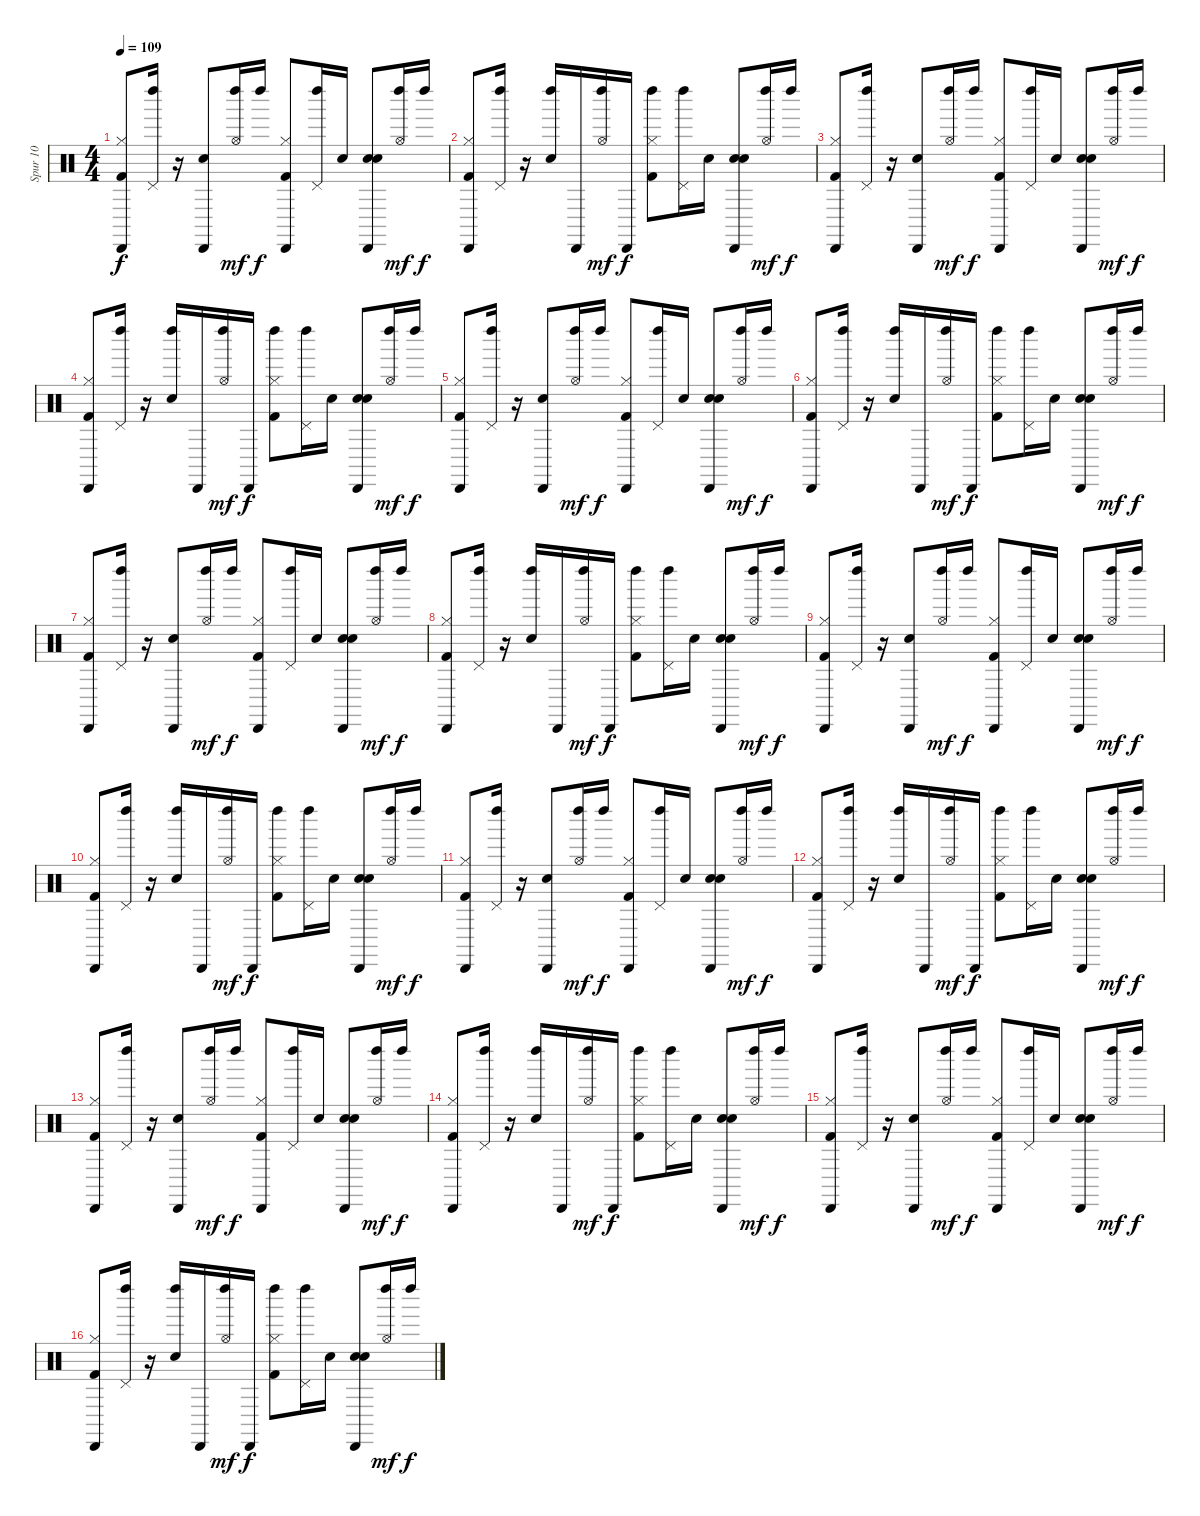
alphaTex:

\track ("Spur 10" "Spur 10") {instrument percussion}
\staff {score}
\articulation defaults
\ts (4 4)
\tempo 109
\clef neutral
\ks c
("Kick (hit) 2" "Hi-Hat (closed)" "Cabasa (hit)").8{dy f} ("Left Maraca (hit)" "Pedal Hi-Hat (hit)").16 r.16 ("Snare (hit) 2" "Cabasa (hit)").8 ("Left Maraca (hit)" "Hi-Hat (open)").16{dy mf} "Left Maraca (hit)".16{dy f} ("Kick (hit) 2" "Cabasa (hit)" "Hi-Hat (closed)").8 ("Pedal Hi-Hat (hit)" "Left Maraca (hit)").16 "Electric Snare (hit)".16 ("Electric Snare (hit)" "Snare (hit) 2" "Cabasa (hit)").8 ("Left Maraca (hit)" "Hi-Hat (open)").16{dy mf} "Left Maraca (hit)".16{dy f} |
("Kick (hit) 2" "Hi-Hat (closed)" "Cabasa (hit)").8 ("Pedal Hi-Hat (hit)" "Left Maraca (hit)").16 r.16 ("Snare (hit) 2" "Left Maraca (hit)").16 "Cabasa (hit)".16 ("Hi-Hat (open)" "Left Maraca (hit)").16{dy mf} "Cabasa (hit)".16{dy f} ("Kick (hit) 2" "Left Maraca (hit)" "Hi-Hat (closed)").8 ("Left Maraca (hit)" "Pedal Hi-Hat (hit)").16 "Electric Snare (hit)".16 ("Electric Snare (hit)" "Snare (hit) 2" "Cabasa (hit)").8 ("Left Maraca (hit)" "Hi-Hat (open)").16{dy mf} "Left Maraca (hit)".16{dy f} |
("Kick (hit) 2" "Hi-Hat (closed)" "Cabasa (hit)").8 ("Left Maraca (hit)" "Pedal Hi-Hat (hit)").16 r.16 ("Snare (hit) 2" "Cabasa (hit)").8 ("Left Maraca (hit)" "Hi-Hat (open)").16{dy mf} "Left Maraca (hit)".16{dy f} ("Kick (hit) 2" "Cabasa (hit)" "Hi-Hat (closed)").8 ("Pedal Hi-Hat (hit)" "Left Maraca (hit)").16 "Electric Snare (hit)".16 ("Snare (hit) 2" "Electric Snare (hit)" "Cabasa (hit)").8 ("Left Maraca (hit)" "Hi-Hat (open)").16{dy mf} "Left Maraca (hit)".16{dy f} |
("Kick (hit) 2" "Hi-Hat (closed)" "Cabasa (hit)").8 ("Pedal Hi-Hat (hit)" "Left Maraca (hit)").16 r.16 ("Snare (hit) 2" "Left Maraca (hit)").16 "Cabasa (hit)".16 ("Hi-Hat (open)" "Left Maraca (hit)").16{dy mf} "Cabasa (hit)".16{dy f} ("Kick (hit) 2" "Left Maraca (hit)" "Hi-Hat (closed)").8 ("Left Maraca (hit)" "Pedal Hi-Hat (hit)").16 "Electric Snare (hit)".16 ("Electric Snare (hit)" "Snare (hit) 2" "Cabasa (hit)").8 ("Left Maraca (hit)" "Hi-Hat (open)").16{dy mf} "Left Maraca (hit)".16{dy f} |
("Kick (hit) 2" "Hi-Hat (closed)" "Cabasa (hit)").8 ("Left Maraca (hit)" "Pedal Hi-Hat (hit)").16 r.16 ("Snare (hit) 2" "Cabasa (hit)").8 ("Left Maraca (hit)" "Hi-Hat (open)").16{dy mf} "Left Maraca (hit)".16{dy f} ("Kick (hit) 2" "Cabasa (hit)" "Hi-Hat (closed)").8 ("Pedal Hi-Hat (hit)" "Left Maraca (hit)").16 "Electric Snare (hit)".16 ("Electric Snare (hit)" "Snare (hit) 2" "Cabasa (hit)").8 ("Left Maraca (hit)" "Hi-Hat (open)").16{dy mf} "Left Maraca (hit)".16{dy f} |
("Kick (hit) 2" "Hi-Hat (closed)" "Cabasa (hit)").8 ("Pedal Hi-Hat (hit)" "Left Maraca (hit)").16 r.16 ("Snare (hit) 2" "Left Maraca (hit)").16 "Cabasa (hit)".16 ("Hi-Hat (open)" "Left Maraca (hit)").16{dy mf} "Cabasa (hit)".16{dy f} ("Kick (hit) 2" "Left Maraca (hit)" "Hi-Hat (closed)").8 ("Left Maraca (hit)" "Pedal Hi-Hat (hit)").16 "Electric Snare (hit)".16 ("Snare (hit) 2" "Electric Snare (hit)" "Cabasa (hit)").8 ("Left Maraca (hit)" "Hi-Hat (open)").16{dy mf} "Left Maraca (hit)".16{dy f} |
("Kick (hit) 2" "Hi-Hat (closed)" "Cabasa (hit)").8 ("Left Maraca (hit)" "Pedal Hi-Hat (hit)").16 r.16 ("Snare (hit) 2" "Cabasa (hit)").8 ("Left Maraca (hit)" "Hi-Hat (open)").16{dy mf} "Left Maraca (hit)".16{dy f} ("Kick (hit) 2" "Cabasa (hit)" "Hi-Hat (closed)").8 ("Pedal Hi-Hat (hit)" "Left Maraca (hit)").16 "Electric Snare (hit)".16 ("Snare (hit) 2" "Electric Snare (hit)" "Cabasa (hit)").8 ("Left Maraca (hit)" "Hi-Hat (open)").16{dy mf} "Left Maraca (hit)".16{dy f} |
("Kick (hit) 2" "Hi-Hat (closed)" "Cabasa (hit)").8 ("Pedal Hi-Hat (hit)" "Left Maraca (hit)").16 r.16 ("Snare (hit) 2" "Left Maraca (hit)").16 "Cabasa (hit)".16 ("Hi-Hat (open)" "Left Maraca (hit)").16{dy mf} "Cabasa (hit)".16{dy f} ("Kick (hit) 2" "Left Maraca (hit)" "Hi-Hat (closed)").8 ("Left Maraca (hit)" "Pedal Hi-Hat (hit)").16 "Electric Snare (hit)".16 ("Electric Snare (hit)" "Snare (hit) 2" "Cabasa (hit)").8 ("Left Maraca (hit)" "Hi-Hat (open)").16{dy mf} "Left Maraca (hit)".16{dy f} |
("Kick (hit) 2" "Hi-Hat (closed)" "Cabasa (hit)").8 ("Left Maraca (hit)" "Pedal Hi-Hat (hit)").16 r.16 ("Snare (hit) 2" "Cabasa (hit)").8 ("Left Maraca (hit)" "Hi-Hat (open)").16{dy mf} "Left Maraca (hit)".16{dy f} ("Kick (hit) 2" "Cabasa (hit)" "Hi-Hat (closed)").8 ("Pedal Hi-Hat (hit)" "Left Maraca (hit)").16 "Electric Snare (hit)".16 ("Electric Snare (hit)" "Snare (hit) 2" "Cabasa (hit)").8 ("Left Maraca (hit)" "Hi-Hat (open)").16{dy mf} "Left Maraca (hit)".16{dy f} |
("Kick (hit) 2" "Hi-Hat (closed)" "Cabasa (hit)").8 ("Pedal Hi-Hat (hit)" "Left Maraca (hit)").16 r.16 ("Snare (hit) 2" "Left Maraca (hit)").16 "Cabasa (hit)".16 ("Hi-Hat (open)" "Left Maraca (hit)").16{dy mf} "Cabasa (hit)".16{dy f} ("Kick (hit) 2" "Left Maraca (hit)" "Hi-Hat (closed)").8 ("Left Maraca (hit)" "Pedal Hi-Hat (hit)").16 "Electric Snare (hit)".16 ("Electric Snare (hit)" "Snare (hit) 2" "Cabasa (hit)").8 ("Left Maraca (hit)" "Hi-Hat (open)").16{dy mf} "Left Maraca (hit)".16{dy f} |
("Kick (hit) 2" "Hi-Hat (closed)" "Cabasa (hit)").8 ("Left Maraca (hit)" "Pedal Hi-Hat (hit)").16 r.16 ("Snare (hit) 2" "Cabasa (hit)").8 ("Left Maraca (hit)" "Hi-Hat (open)").16{dy mf} "Left Maraca (hit)".16{dy f} ("Kick (hit) 2" "Cabasa (hit)" "Hi-Hat (closed)").8 ("Pedal Hi-Hat (hit)" "Left Maraca (hit)").16 "Electric Snare (hit)".16 ("Electric Snare (hit)" "Snare (hit) 2" "Cabasa (hit)").8 ("Left Maraca (hit)" "Hi-Hat (open)").16{dy mf} "Left Maraca (hit)".16{dy f} |
("Kick (hit) 2" "Hi-Hat (closed)" "Cabasa (hit)").8 ("Pedal Hi-Hat (hit)" "Left Maraca (hit)").16 r.16 ("Snare (hit) 2" "Left Maraca (hit)").16 "Cabasa (hit)".16 ("Hi-Hat (open)" "Left Maraca (hit)").16{dy mf} "Cabasa (hit)".16{dy f} ("Kick (hit) 2" "Left Maraca (hit)" "Hi-Hat (closed)").8 ("Left Maraca (hit)" "Pedal Hi-Hat (hit)").16 "Electric Snare (hit)".16 ("Electric Snare (hit)" "Snare (hit) 2" "Cabasa (hit)").8 ("Left Maraca (hit)" "Hi-Hat (open)").16{dy mf} "Left Maraca (hit)".16{dy f} |
("Kick (hit) 2" "Hi-Hat (closed)" "Cabasa (hit)").8 ("Left Maraca (hit)" "Pedal Hi-Hat (hit)").16 r.16 ("Snare (hit) 2" "Cabasa (hit)").8 ("Left Maraca (hit)" "Hi-Hat (open)").16{dy mf} "Left Maraca (hit)".16{dy f} ("Kick (hit) 2" "Cabasa (hit)" "Hi-Hat (closed)").8 ("Pedal Hi-Hat (hit)" "Left Maraca (hit)").16 "Electric Snare (hit)".16 ("Electric Snare (hit)" "Snare (hit) 2" "Cabasa (hit)").8 ("Left Maraca (hit)" "Hi-Hat (open)").16{dy mf} "Left Maraca (hit)".16{dy f} |
("Kick (hit) 2" "Hi-Hat (closed)" "Cabasa (hit)").8 ("Pedal Hi-Hat (hit)" "Left Maraca (hit)").16 r.16 ("Snare (hit) 2" "Left Maraca (hit)").16 "Cabasa (hit)".16 ("Hi-Hat (open)" "Left Maraca (hit)").16{dy mf} "Cabasa (hit)".16{dy f} ("Kick (hit) 2" "Left Maraca (hit)" "Hi-Hat (closed)").8 ("Left Maraca (hit)" "Pedal Hi-Hat (hit)").16 "Electric Snare (hit)".16 ("Electric Snare (hit)" "Snare (hit) 2" "Cabasa (hit)").8 ("Left Maraca (hit)" "Hi-Hat (open)").16{dy mf} "Left Maraca (hit)".16{dy f} |
("Kick (hit) 2" "Hi-Hat (closed)" "Cabasa (hit)").8 ("Left Maraca (hit)" "Pedal Hi-Hat (hit)").16 r.16 ("Snare (hit) 2" "Cabasa (hit)").8 ("Left Maraca (hit)" "Hi-Hat (open)").16{dy mf} "Left Maraca (hit)".16{dy f} ("Kick (hit) 2" "Cabasa (hit)" "Hi-Hat (closed)").8 ("Pedal Hi-Hat (hit)" "Left Maraca (hit)").16 "Electric Snare (hit)".16 ("Electric Snare (hit)" "Snare (hit) 2" "Cabasa (hit)").8 ("Left Maraca (hit)" "Hi-Hat (open)").16{dy mf} "Left Maraca (hit)".16{dy f} |
("Kick (hit) 2" "Hi-Hat (closed)" "Cabasa (hit)").8 ("Pedal Hi-Hat (hit)" "Left Maraca (hit)").16 r.16 ("Snare (hit) 2" "Left Maraca (hit)").16 "Cabasa (hit)".16 ("Hi-Hat (open)" "Left Maraca (hit)").16{dy mf} "Cabasa (hit)".16{dy f} ("Kick (hit) 2" "Left Maraca (hit)" "Hi-Hat (closed)").8 ("Left Maraca (hit)" "Pedal Hi-Hat (hit)").16 "Electric Snare (hit)".16 ("Snare (hit) 2" "Electric Snare (hit)" "Cabasa (hit)").8 ("Left Maraca (hit)" "Hi-Hat (open)").16{dy mf} "Left Maraca (hit)".16{dy f}
